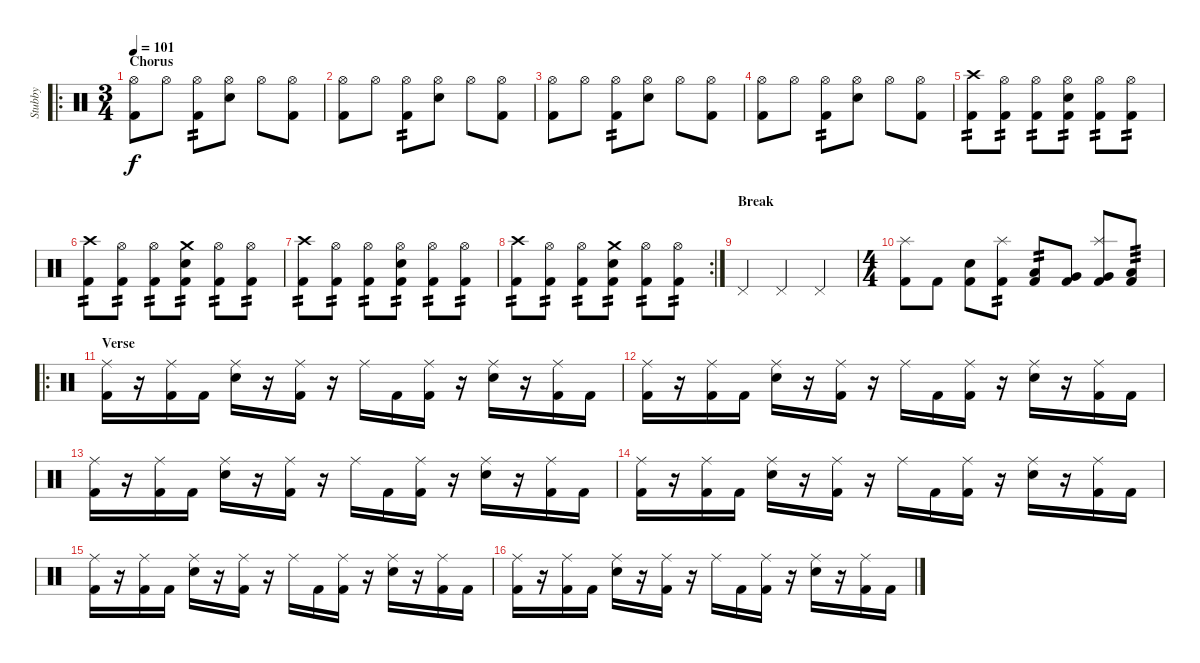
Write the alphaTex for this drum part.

\track ("Stubby" "Stubby") {instrument percussion}
\staff {score}
\articulation defaults
\ro
\ts (3 4)
\section ("" "Chorus")
\tempo 101
\clef neutral
\ks c
("Hi-Hat (open)" "Kick (hit) 2").8{dy f} "Hi-Hat (open)".8 ("Hi-Hat (open)" "Kick (hit) 2").8{tp 2} ("Hi-Hat (open)" "Electric Snare (hit)").8 "Hi-Hat (open)".8 ("Hi-Hat (open)" "Kick (hit) 2").8 |
("Hi-Hat (open)" "Kick (hit) 2").8 "Hi-Hat (open)".8 ("Hi-Hat (open)" "Kick (hit) 2").8{tp 2} ("Hi-Hat (open)" "Electric Snare (hit)").8 "Hi-Hat (open)".8 ("Hi-Hat (open)" "Kick (hit) 2").8 |
("Hi-Hat (open)" "Kick (hit) 2").8 "Hi-Hat (open)".8 ("Hi-Hat (open)" "Kick (hit) 2").8{tp 2} ("Hi-Hat (open)" "Electric Snare (hit)").8 "Hi-Hat (open)".8 ("Hi-Hat (open)" "Kick (hit) 2").8 |
("Hi-Hat (open)" "Kick (hit) 2").8 "Hi-Hat (open)".8 ("Hi-Hat (open)" "Kick (hit) 2").8{tp 2} ("Hi-Hat (open)" "Electric Snare (hit)").8 "Hi-Hat (open)".8 ("Hi-Hat (open)" "Kick (hit) 2").8 |
("Crash high (hit)" "Kick (hit) 2").8{tp 2} ("Hi-Hat (open)" "Kick (hit) 2").8{tp 2} ("Hi-Hat (open)" "Kick (hit) 2").8{tp 2} ("Hi-Hat (open)" "Electric Snare (hit)" "Kick (hit) 2").8{tp 2} ("Hi-Hat (open)" "Kick (hit) 2").8{tp 2} ("Hi-Hat (open)" "Kick (hit) 2").8{tp 2} |
("Crash high (hit)" "Kick (hit) 2").8{tp 2} ("Hi-Hat (open)" "Kick (hit) 2").8{tp 2} ("Hi-Hat (open)" "Kick (hit) 2").8{tp 2} ("Crash medium (hit)" "Electric Snare (hit)" "Kick (hit) 2").8{tp 2} ("Hi-Hat (open)" "Kick (hit) 2").8{tp 2} ("Hi-Hat (open)" "Kick (hit) 2").8{tp 2} |
("Crash high (hit)" "Kick (hit) 2").8{tp 2} ("Hi-Hat (open)" "Kick (hit) 2").8{tp 2} ("Hi-Hat (open)" "Kick (hit) 2").8{tp 2} ("Hi-Hat (open)" "Electric Snare (hit)" "Kick (hit) 2").8{tp 2} ("Hi-Hat (open)" "Kick (hit) 2").8{tp 2} ("Hi-Hat (open)" "Kick (hit) 2").8{tp 2} |
\rc 2
("Crash high (hit)" "Kick (hit) 2").8{tp 2} ("Hi-Hat (open)" "Kick (hit) 2").8{tp 2} ("Hi-Hat (open)" "Kick (hit) 2").8{tp 2} ("Crash medium (hit)" "Electric Snare (hit)" "Kick (hit) 2").8{tp 2} ("Hi-Hat (open)" "Kick (hit) 2").8{tp 2} ("Hi-Hat (open)" "Kick (hit) 2").8{tp 2} |
\section ("" "Break")
"Pedal Hi-Hat (hit)".4 "Pedal Hi-Hat (hit)".4 "Pedal Hi-Hat (hit)".4 |
\ts (4 4)
("Splash (hit)" "Kick (hit) 2").8 "Kick (hit) 2".8 ("Electric Snare (hit)" "Kick (hit) 2").8 ("Splash (hit)" "Kick (hit) 2").8{tp 2} ("Low Tom (hit)" "Kick (hit) 2").8{tp 2} ("Very Low Tom (hit)" "Kick (hit) 2").8 ("Splash (hit)" "Very Low Tom (hit)" "Kick (hit) 2").8 ("Low Floor Tom (hit)" "Kick (hit) 2").8{tp 3} |
\ro
\section ("" "Verse")
("Ride (middle)" "Kick (hit) 2").16 r.16 ("Ride (middle)" "Kick (hit) 2").16 "Kick (hit) 2".16 ("Ride (middle)" "Electric Snare (hit)").16 r.16 ("Ride (middle)" "Kick (hit) 2").16 r.16 "Ride (middle)".16 "Kick (hit) 2".16 ("Ride (middle)" "Kick (hit) 2").16 r.16 ("Ride (middle)" "Electric Snare (hit)").16 r.16 ("Ride (middle)" "Kick (hit) 2").16 "Kick (hit) 2".16 |
("Ride (middle)" "Kick (hit) 2").16 r.16 ("Ride (middle)" "Kick (hit) 2").16 "Kick (hit) 2".16 ("Ride (middle)" "Electric Snare (hit)").16 r.16 ("Ride (middle)" "Kick (hit) 2").16 r.16 "Ride (middle)".16 "Kick (hit) 2".16 ("Ride (middle)" "Kick (hit) 2").16 r.16 ("Ride (middle)" "Electric Snare (hit)").16 r.16 ("Ride (middle)" "Kick (hit) 2").16 "Kick (hit) 2".16 |
("Ride (middle)" "Kick (hit) 2").16 r.16 ("Ride (middle)" "Kick (hit) 2").16 "Kick (hit) 2".16 ("Ride (middle)" "Electric Snare (hit)").16 r.16 ("Ride (middle)" "Kick (hit) 2").16 r.16 "Ride (middle)".16 "Kick (hit) 2".16 ("Ride (middle)" "Kick (hit) 2").16 r.16 ("Ride (middle)" "Electric Snare (hit)").16 r.16 ("Ride (middle)" "Kick (hit) 2").16 "Kick (hit) 2".16 |
("Ride (middle)" "Kick (hit) 2").16 r.16 ("Ride (middle)" "Kick (hit) 2").16 "Kick (hit) 2".16 ("Ride (middle)" "Electric Snare (hit)").16 r.16 ("Ride (middle)" "Kick (hit) 2").16 r.16 "Ride (middle)".16 "Kick (hit) 2".16 ("Ride (middle)" "Kick (hit) 2").16 r.16 ("Ride (middle)" "Electric Snare (hit)").16 r.16 ("Ride (middle)" "Kick (hit) 2").16 "Kick (hit) 2".16 |
("Ride (middle)" "Kick (hit) 2").16 r.16 ("Ride (middle)" "Kick (hit) 2").16 "Kick (hit) 2".16 ("Ride (middle)" "Electric Snare (hit)").16 r.16 ("Ride (middle)" "Kick (hit) 2").16 r.16 "Ride (middle)".16 "Kick (hit) 2".16 ("Ride (middle)" "Kick (hit) 2").16 r.16 ("Ride (middle)" "Electric Snare (hit)").16 r.16 ("Ride (middle)" "Kick (hit) 2").16 "Kick (hit) 2".16 |
("Ride (middle)" "Kick (hit) 2").16 r.16 ("Ride (middle)" "Kick (hit) 2").16 "Kick (hit) 2".16 ("Ride (middle)" "Electric Snare (hit)").16 r.16 ("Ride (middle)" "Kick (hit) 2").16 r.16 "Ride (middle)".16 "Kick (hit) 2".16 ("Ride (middle)" "Kick (hit) 2").16 r.16 ("Ride (middle)" "Electric Snare (hit)").16 r.16 ("Ride (middle)" "Kick (hit) 2").16 "Kick (hit) 2".16
